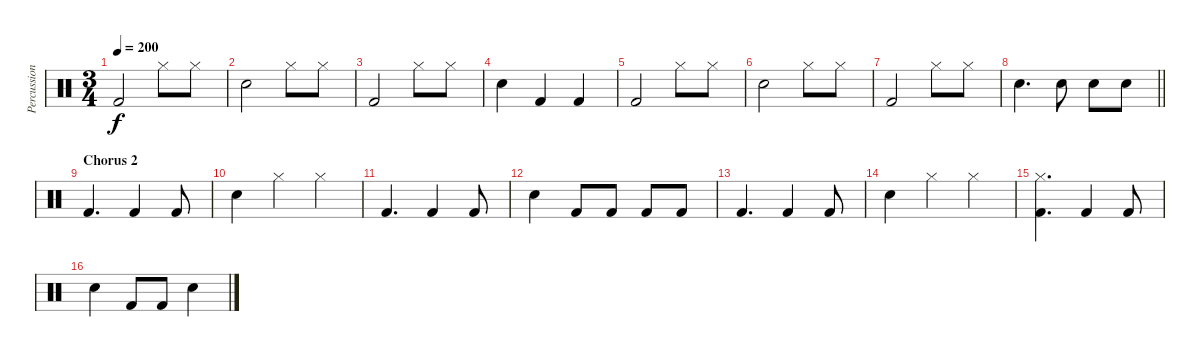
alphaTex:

\track ("Percussion" "Percussion") {instrument percussion}
\staff {score}
\articulation defaults
\ts (3 4)
\tempo 200
\clef neutral
\ks c "Kick (hit) 2".2{dy f} "Hi-Hat (closed)".8 "Hi-Hat (closed)".8
|
"Snare (hit) 2".2 "Hi-Hat (closed)".8 "Hi-Hat (closed)".8 |
"Kick (hit) 2".2 "Hi-Hat (closed)".8 "Hi-Hat (closed)".8 |
"Snare (hit) 2".4 "Kick (hit) 2".4 "Kick (hit) 2".4 |
"Kick (hit) 2".2 "Hi-Hat (closed)".8 "Hi-Hat (closed)".8 |
"Snare (hit) 2".2 "Hi-Hat (closed)".8 "Hi-Hat (closed)".8 |
"Kick (hit) 2".2 "Hi-Hat (closed)".8 "Hi-Hat (closed)".8 |
\barLineRight lightlight "Electric Snare (hit)".4{d} "Electric Snare (hit)".8 "Electric Snare (hit)".8 "Electric Snare (hit)".8
|
\section ("" "Chorus 2")
"Kick (hit) 2".4{d} "Kick (hit) 2".4 "Kick (hit) 2".8 |
"Snare (hit) 2".4 "Hi-Hat (closed)".4 "Hi-Hat (closed)".4 |
"Kick (hit) 2".4{d} "Kick (hit) 2".4 "Kick (hit) 2".8 |
"Snare (hit) 2".4 "Kick (hit) 2".8 "Kick (hit) 2".8 "Kick (hit) 2".8 "Kick (hit) 2".8 |
"Kick (hit) 2".4{d} "Kick (hit) 2".4 "Kick (hit) 2".8 |
"Snare (hit) 2".4 "Hi-Hat (closed)".4 "Hi-Hat (closed)".4 |
("Hi-Hat (closed)" "Kick (hit) 2").4{d} "Kick (hit) 2".4 "Kick (hit) 2".8 |
"Snare (hit) 2".4 "Kick (hit) 2".8 "Kick (hit) 2".8 "Snare (hit) 2".4
